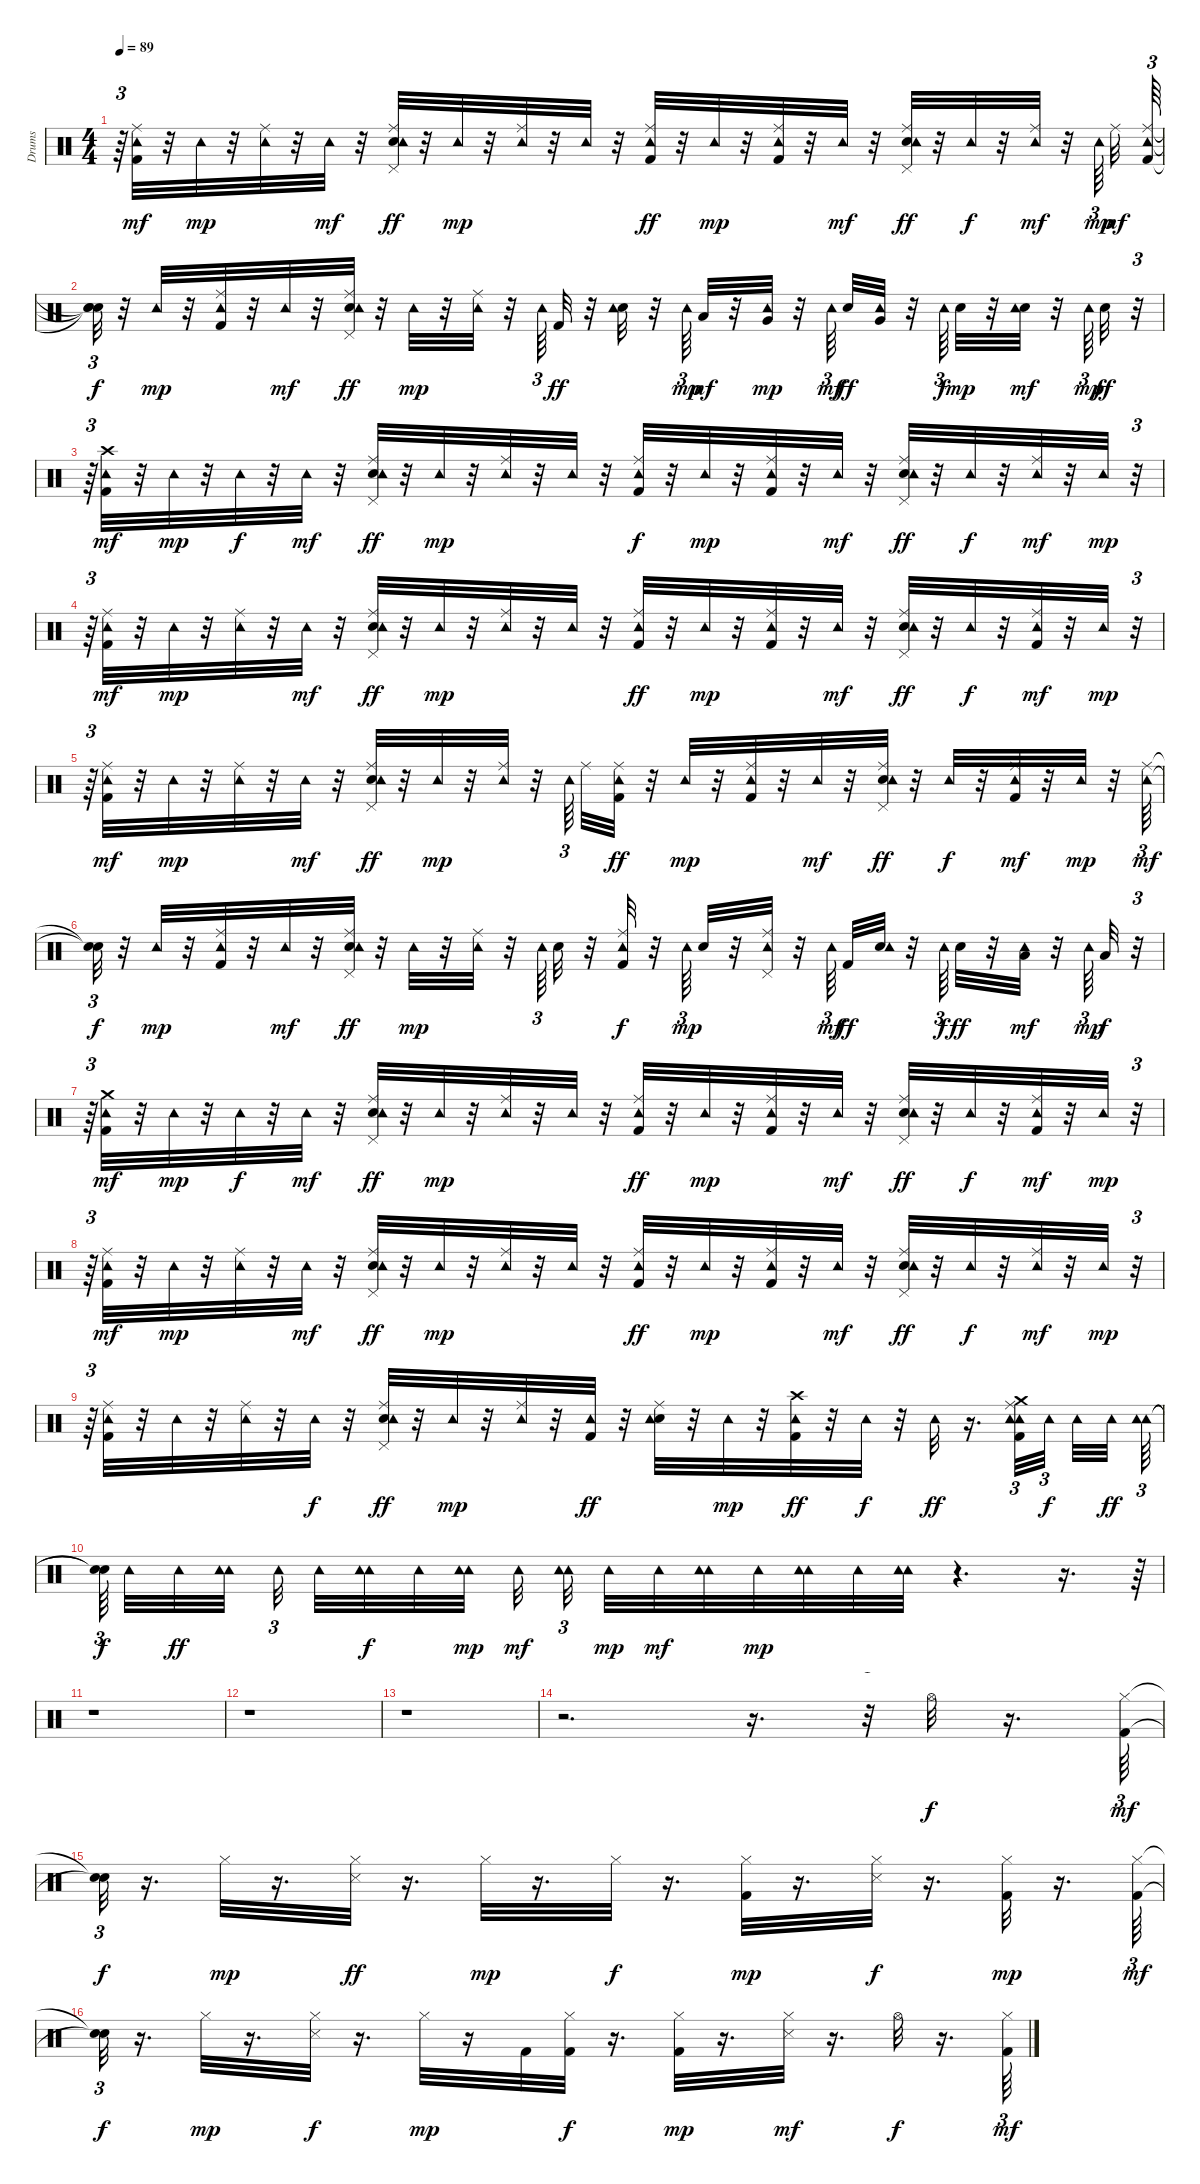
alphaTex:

\track ("Drums   " "Drums   ") {instrument percussion}
\staff {score}
\articulation defaults
\ts (4 4)
\tempo 89
\clef neutral
\ks c
r.64{tu (3 2) dy mp} ("Kick (hit) 2" "Ride (middle)" "Tambourine (hit)").32{dy mf} r.32 "Tambourine (hit)".32{dy mp} r.32 ("Ride (middle)" "Tambourine (hit)").32 r.32 "Tambourine (hit)".32{dy mf} r.32 ("Electric Snare (hit)" "Pedal Hi-Hat (hit)" "Ride (middle)" "Tambourine (hit)").32{dy ff} r.32 "Tambourine (hit)".32{dy mp} r.32 ("Ride (middle)" "Tambourine (hit)").32 r.32 "Tambourine (hit)".32 r.32 ("Kick (hit) 2" "Ride (middle)" "Tambourine (hit)").32{dy ff} r.32 "Tambourine (hit)".32{dy mp} r.32 ("Kick (hit) 2" "Ride (middle)" "Tambourine (hit)").32 r.32 "Tambourine (hit)".32{dy mf} r.32 ("Electric Snare (hit)" "Pedal Hi-Hat (hit)" "Ride (middle)" "Tambourine (hit)").32{dy ff} r.32 "Tambourine (hit)".32{dy f} r.32 ("Ride (middle)" "Tambourine (hit)").32{dy mf} r.32 "Tambourine (hit)".64{tu (3 2) dy mp beam splitsecondary} "Ride (middle)".32{dy mf} ("Kick (hit) 2" "Ride (middle)" "Tambourine (hit)").64{tu (3 2)} |
("Snare (hit)"{t} "Snare (hit)"{t} "Snare (hit)"{t}).32{tu (3 2) dy f} r.32 "Tambourine (hit)".32{dy mp} r.32 ("Kick (hit) 2" "Ride (middle)" "Tambourine (hit)").32 r.32 "Tambourine (hit)".32{dy mf} r.32 ("Electric Snare (hit)" "Pedal Hi-Hat (hit)" "Ride (middle)" "Tambourine (hit)").32{dy ff} r.32 "Tambourine (hit)".32{dy mp} r.32 ("Ride (middle)" "Tambourine (hit)").32 r.32 "Tambourine (hit)".64{tu (3 2)} "Kick (hit) 2".32{dy ff} r.32 ("Electric Snare (hit)" "Tambourine (hit)").32 r.32 "Tambourine (hit)".64{tu (3 2) dy mp} "Low Tom (hit)".32{dy mf} r.32 ("Very Low Tom (hit)" "Tambourine (hit)").32{dy mp} r.32 "Tambourine (hit)".64{tu (3 2) dy mf beam splitsecondary} "Electric Snare (hit)".32{dy ff} ("Very Low Tom (hit)" "Tambourine (hit)").32 r.32 "Tambourine (hit)".64{tu (3 2) dy f} "Electric Snare (hit)".32{dy mp} r.32 ("Electric Snare (hit)" "Tambourine (hit)").32{dy mf} r.32 "Tambourine (hit)".64{tu (3 2) dy mp} "Electric Snare (hit)".32{dy ff} r.32{tu (3 2)} |
r.64{tu (3 2)} ("Kick (hit) 2" "Crash high (hit)" "Tambourine (hit)").32{dy mf} r.32 "Tambourine (hit)".32{dy mp} r.32 "Tambourine (hit)".32{dy f} r.32 "Tambourine (hit)".32{dy mf} r.32 ("Electric Snare (hit)" "Pedal Hi-Hat (hit)" "Ride (middle)" "Tambourine (hit)").32{dy ff} r.32 "Tambourine (hit)".32{dy mp} r.32 ("Ride (middle)" "Tambourine (hit)").32 r.32 "Tambourine (hit)".32 r.32 ("Kick (hit) 2" "Ride (middle)" "Tambourine (hit)").32{dy f} r.32 "Tambourine (hit)".32{dy mp} r.32 ("Kick (hit) 2" "Ride (middle)" "Tambourine (hit)").32 r.32 "Tambourine (hit)".32{dy mf} r.32 ("Electric Snare (hit)" "Pedal Hi-Hat (hit)" "Ride (middle)" "Tambourine (hit)").32{dy ff} r.32 "Tambourine (hit)".32{dy f} r.32 ("Ride (middle)" "Tambourine (hit)").32{dy mf} r.32 "Tambourine (hit)".32{dy mp} r.32{tu (3 2)} |
r.64{tu (3 2)} ("Kick (hit) 2" "Ride (middle)" "Tambourine (hit)").32{dy mf} r.32 "Tambourine (hit)".32{dy mp} r.32 ("Ride (middle)" "Tambourine (hit)").32 r.32 "Tambourine (hit)".32{dy mf} r.32 ("Electric Snare (hit)" "Pedal Hi-Hat (hit)" "Ride (middle)" "Tambourine (hit)").32{dy ff} r.32 "Tambourine (hit)".32{dy mp} r.32 ("Ride (middle)" "Tambourine (hit)").32 r.32 "Tambourine (hit)".32 r.32 ("Kick (hit) 2" "Ride (middle)" "Tambourine (hit)").32{dy ff} r.32 "Tambourine (hit)".32{dy mp} r.32 ("Kick (hit) 2" "Ride (middle)" "Tambourine (hit)").32 r.32 "Tambourine (hit)".32{dy mf} r.32 ("Electric Snare (hit)" "Pedal Hi-Hat (hit)" "Ride (middle)" "Tambourine (hit)").32{dy ff} r.32 "Tambourine (hit)".32{dy f} r.32 ("Kick (hit) 2" "Ride (middle)" "Tambourine (hit)").32{dy mf} r.32 "Tambourine (hit)".32{dy mp} r.32{tu (3 2)} |
r.64{tu (3 2)} ("Kick (hit) 2" "Ride (middle)" "Tambourine (hit)").32{dy mf} r.32 "Tambourine (hit)".32{dy mp} r.32 ("Ride (middle)" "Tambourine (hit)").32 r.32 "Tambourine (hit)".32{dy mf} r.32 ("Electric Snare (hit)" "Pedal Hi-Hat (hit)" "Ride (middle)" "Tambourine (hit)").32{dy ff} r.32 "Tambourine (hit)".32{dy mp} r.32 ("Ride (middle)" "Tambourine (hit)").32 r.32 "Tambourine (hit)".64{tu (3 2) beam splitsecondary} "Ride (middle)".32 ("Kick (hit) 2" "Ride (middle)" "Tambourine (hit)").32{dy ff} r.32 "Tambourine (hit)".32{dy mp} r.32 ("Kick (hit) 2" "Ride (middle)" "Tambourine (hit)").32 r.32 "Tambourine (hit)".32{dy mf} r.32 ("Electric Snare (hit)" "Pedal Hi-Hat (hit)" "Ride (middle)" "Tambourine (hit)").32{dy ff} r.32 "Tambourine (hit)".32{dy f} r.32 ("Kick (hit) 2" "Ride (middle)" "Tambourine (hit)").32{dy mf} r.32 "Tambourine (hit)".32{dy mp} r.32 ("Ride (middle)" "Tambourine (hit)").64{tu (3 2) dy mf} |
("Snare (hit)"{t} "Snare (hit)"{t}).32{tu (3 2) dy f} r.32 "Tambourine (hit)".32{dy mp} r.32 ("Kick (hit) 2" "Ride (middle)" "Tambourine (hit)").32 r.32 "Tambourine (hit)".32{dy mf} r.32 ("Electric Snare (hit)" "Pedal Hi-Hat (hit)" "Ride (middle)" "Tambourine (hit)").32{dy ff} r.32 "Tambourine (hit)".32{dy mp} r.32 ("Ride (middle)" "Tambourine (hit)").32 r.32 "Tambourine (hit)".64{tu (3 2)} "Electric Snare (hit)".32 r.32 ("Kick (hit) 2" "Ride (middle)" "Tambourine (hit)").32{dy f} r.32 "Tambourine (hit)".64{tu (3 2) dy mp} "Electric Snare (hit)".32 r.32 ("Pedal Hi-Hat (hit)" "Ride (middle)" "Tambourine (hit)").32 r.32 "Tambourine (hit)".64{tu (3 2) dy mf beam splitsecondary} "Kick (hit) 2".32{dy ff} ("Electric Snare (hit)" "Tambourine (hit)").32 r.32 "Tambourine (hit)".64{tu (3 2) dy f} "Electric Snare (hit)".32{dy ff} r.32 ("Low Tom (hit)" "Tambourine (hit)").32{dy mf} r.32 "Tambourine (hit)".64{tu (3 2) dy mp} "Low Tom (hit)".32{dy f} r.32{tu (3 2)} |
r.64{tu (3 2)} ("Kick (hit) 2" "Tambourine (hit)" "Crash medium (hit)").32{dy mf} r.32 "Tambourine (hit)".32{dy mp} r.32 "Tambourine (hit)".32{dy f} r.32 "Tambourine (hit)".32{dy mf} r.32 ("Electric Snare (hit)" "Pedal Hi-Hat (hit)" "Ride (middle)" "Tambourine (hit)").32{dy ff} r.32 "Tambourine (hit)".32{dy mp} r.32 ("Ride (middle)" "Tambourine (hit)").32 r.32 "Tambourine (hit)".32 r.32 ("Kick (hit) 2" "Ride (middle)" "Tambourine (hit)").32{dy ff} r.32 "Tambourine (hit)".32{dy mp} r.32 ("Kick (hit) 2" "Ride (middle)" "Tambourine (hit)").32 r.32 "Tambourine (hit)".32{dy mf} r.32 ("Electric Snare (hit)" "Pedal Hi-Hat (hit)" "Ride (middle)" "Tambourine (hit)").32{dy ff} r.32 "Tambourine (hit)".32{dy f} r.32 ("Kick (hit) 2" "Ride (middle)" "Tambourine (hit)").32{dy mf} r.32 "Tambourine (hit)".32{dy mp} r.32{tu (3 2)} |
r.64{tu (3 2)} ("Kick (hit) 2" "Ride (middle)" "Tambourine (hit)").32{dy mf} r.32 "Tambourine (hit)".32{dy mp} r.32 ("Ride (middle)" "Tambourine (hit)").32 r.32 "Tambourine (hit)".32{dy mf} r.32 ("Electric Snare (hit)" "Pedal Hi-Hat (hit)" "Ride (middle)" "Tambourine (hit)").32{dy ff} r.32 "Tambourine (hit)".32{dy mp} r.32 ("Ride (middle)" "Tambourine (hit)").32 r.32 "Tambourine (hit)".32 r.32 ("Kick (hit) 2" "Ride (middle)" "Tambourine (hit)").32{dy ff} r.32 "Tambourine (hit)".32{dy mp} r.32 ("Kick (hit) 2" "Ride (middle)" "Tambourine (hit)").32 r.32 "Tambourine (hit)".32{dy mf} r.32 ("Electric Snare (hit)" "Pedal Hi-Hat (hit)" "Ride (middle)" "Tambourine (hit)").32{dy ff} r.32 "Tambourine (hit)".32{dy f} r.32 ("Ride (middle)" "Tambourine (hit)").32{dy mf} r.32 "Tambourine (hit)".32{dy mp} r.32{tu (3 2)} |
r.64{tu (3 2)} ("Kick (hit) 2" "Ride (middle)" "Tambourine (hit)").32 r.32 "Tambourine (hit)".32 r.32 ("Ride (middle)" "Tambourine (hit)").32 r.32 "Tambourine (hit)".32{dy f} r.32 ("Electric Snare (hit)" "Pedal Hi-Hat (hit)" "Ride (middle)" "Tambourine (hit)").32{dy ff} r.32 "Tambourine (hit)".32{dy mp} r.32 ("Tambourine (hit)" "Ride (middle)").32 r.32 ("Tambourine (hit)" "Kick (hit) 2").32{dy ff} r.32 ("Electric Snare (hit)" "Ride (middle)" "Tambourine (hit)").32 r.32 "Tambourine (hit)".32{dy mp} r.32 ("Kick (hit) 2" "Crash high (hit)" "Tambourine (hit)").32{dy ff} r.32 "Tambourine (hit)".32{dy f} r.32 "Tambourine (hit)".32{dy ff} r.16{d} ("Kick (hit) 2" "Crash medium (hit)" "Tambourine (hit)" "Ride (middle)" "Tambourine (hit)").32{tu (3 2)} "Tambourine (hit)".32{tu (3 2) dy f beam splitsecondary} "Tambourine (hit)".32 "Tambourine (hit)".32{dy ff beam splitsecondary} ("Tambourine (hit)" "Tambourine (hit)").64{tu (3 2)} |
("Snare (hit)"{t} "Snare (hit)"{t}).64{tu (3 2) dy f beam splitsecondary} "Tambourine (hit)".32 "Tambourine (hit)".32{dy ff} ("Tambourine (hit)" "Tambourine (hit)").32{beam splitsecondary} "Tambourine (hit)".32{tu (3 2) beam splitsecondary} "Tambourine (hit)".32 ("Tambourine (hit)" "Tambourine (hit)").32{dy f} "Tambourine (hit)".32 ("Tambourine (hit)" "Tambourine (hit)").32{dy mp} "Tambourine (hit)".32{dy mf beam splitsecondary} ("Tambourine (hit)" "Tambourine (hit)").32{tu (3 2) beam splitsecondary} "Tambourine (hit)".32{dy mp} "Tambourine (hit)".32{dy mf} ("Tambourine (hit)" "Tambourine (hit)").32 "Tambourine (hit)".32{dy mp} ("Tambourine (hit)" "Tambourine (hit)").32 "Tambourine (hit)".32 ("Tambourine (hit)" "Tambourine (hit)").32 r.4{d} r.16{d} r.64{tu (3 2)} |
r.1 |
r.1 |
r.1 |
r.2{d} r.16{d} r.32{tu (3 2)} "Hi-Hat (open)".32{dy f} r.16{d} ("Kick (hit) 2" "Hi-Hat (closed)").64{tu (3 2) dy mf} |
("Snare (hit)"{t} "Snare (hit)"{t}).32{tu (3 2) dy f} r.16{d} "Hi-Hat (closed)".32{dy mp} r.16{d} ("Snare (side stick) 3" "Hi-Hat (closed)").32{dy ff} r.16{d} "Hi-Hat (closed)".32{dy mp} r.16{d} "Hi-Hat (closed)".32{dy f} r.16{d} ("Kick (hit) 2" "Hi-Hat (closed)").32{dy mp} r.16{d} ("Snare (side stick) 3" "Hi-Hat (closed)").32{dy f} r.16{d} ("Kick (hit) 2" "Hi-Hat (closed)").32{dy mp} r.16{d} ("Kick (hit) 2" "Hi-Hat (closed)").64{tu (3 2) dy mf} |
("Snare (hit)"{t} "Snare (hit)"{t}).32{tu (3 2) dy f} r.16{d} "Hi-Hat (closed)".32{dy mp} r.16{d} ("Snare (side stick) 3" "Hi-Hat (closed)").32{dy f} r.16{d} "Hi-Hat (closed)".32{dy mp} r.16 "Kick (hit) 2".32 ("Kick (hit) 2" "Hi-Hat (closed)").32{dy f} r.16{d} ("Kick (hit) 2" "Hi-Hat (closed)").32{dy mp} r.16{d} ("Snare (side stick) 3" "Hi-Hat (closed)").32{dy mf} r.16{d} "Hi-Hat (open)".32{dy f} r.16{d} ("Kick (hit) 2" "Hi-Hat (closed)").64{tu (3 2) dy mf}
